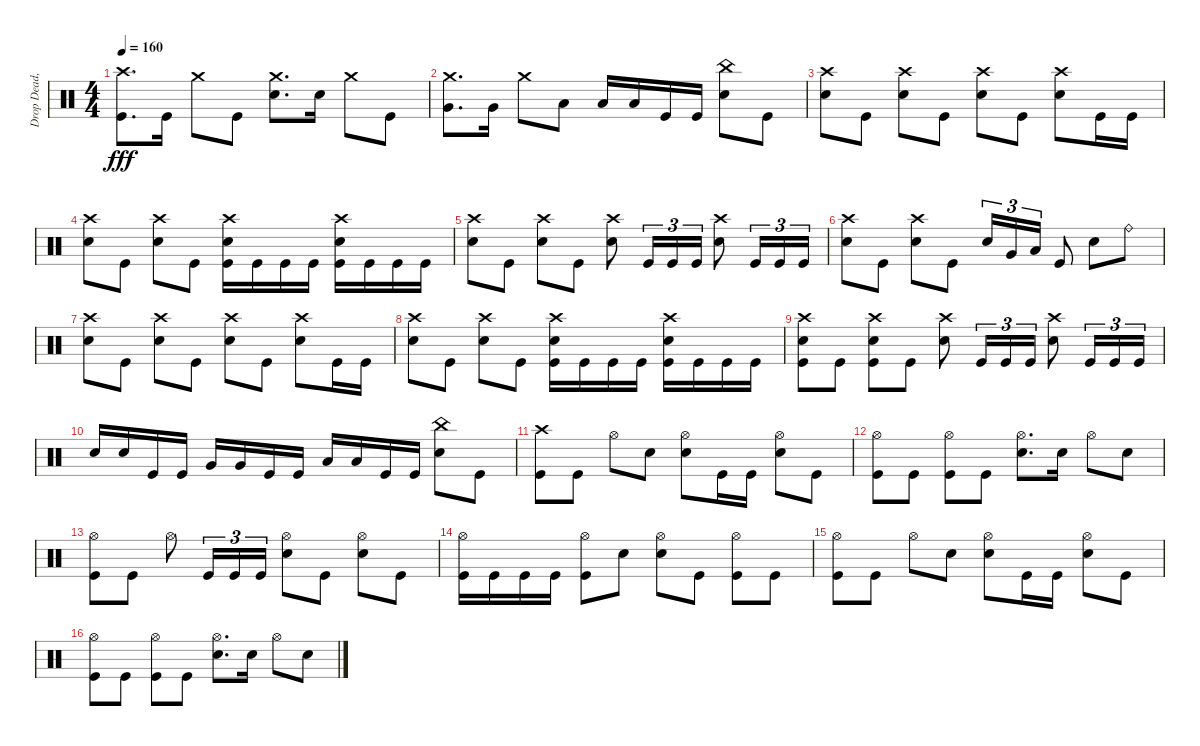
\track ("Drop Dead, Johnny" "Drop Dead,") {instrument percussion}
\staff {score}
\articulation defaults
\ts (4 4)
\tempo 160
\clef neutral
\ks c
("Crash high (hit)" "Kick (hit)").8{d dy fff} "Kick (hit)".16 "Crash medium (hit)".8 "Kick (hit)".8 ("Crash medium (hit)" "Electric Snare (hit)").8{d} "Electric Snare (hit)".16 "Crash medium (hit)".8 "Kick (hit)".8 |
("Crash medium (hit)" "Very Low Tom (hit)").8{d} "Very Low Tom (hit)".16 "Crash medium (hit)".8 "Low Floor Tom (hit)".8 "Low Floor Tom (hit)".16 "Low Floor Tom (hit)".16 "Kick (hit)".16 "Kick (hit)".16 ("China (hit)" "Electric Snare (hit)").8 "Kick (hit)".8 |
("Crash high (hit)" "Electric Snare (hit)").8 "Kick (hit)".8 ("Crash high (hit)" "Electric Snare (hit)").8 "Kick (hit)".8 ("Crash high (hit)" "Electric Snare (hit)").8 "Kick (hit)".8 ("Crash high (hit)" "Electric Snare (hit)").8 "Kick (hit)".16 "Kick (hit)".16 |
("Crash high (hit)" "Electric Snare (hit)").8 "Kick (hit)".8 ("Crash high (hit)" "Electric Snare (hit)").8 "Kick (hit)".8 ("Crash high (hit)" "Electric Snare (hit)" "Kick (hit)").16 "Kick (hit)".16 "Kick (hit)".16 "Kick (hit)".16 ("Crash high (hit)" "Electric Snare (hit)" "Kick (hit)").16 "Kick (hit)".16 "Kick (hit)".16 "Kick (hit)".16 |
("Crash high (hit)" "Electric Snare (hit)").8 "Kick (hit)".8 ("Crash high (hit)" "Electric Snare (hit)").8 "Kick (hit)".8 ("Crash high (hit)" "Electric Snare (hit)").8 "Kick (hit)".16{tu (3 2)} "Kick (hit)".16{tu (3 2)} "Kick (hit)".16{tu (3 2)} ("Crash high (hit)" "Electric Snare (hit)").8 "Kick (hit)".16{tu (3 2)} "Kick (hit)".16{tu (3 2)} "Kick (hit)".16{tu (3 2)} |
("Crash high (hit)" "Electric Snare (hit)").8 "Kick (hit)".8 ("Crash high (hit)" "Electric Snare (hit)").8 "Kick (hit)".8 "Electric Snare (hit)".16{tu (3 2)} "Very Low Tom (hit)".16{tu (3 2)} "Low Floor Tom (hit)".16{tu (3 2)} "Kick (hit)".8 "Electric Snare (hit)".8 "Ride (bell)".8 |
("Crash high (hit)" "Electric Snare (hit)").8 "Kick (hit)".8 ("Crash high (hit)" "Electric Snare (hit)").8 "Kick (hit)".8 ("Crash high (hit)" "Electric Snare (hit)").8 "Kick (hit)".8 ("Crash high (hit)" "Electric Snare (hit)").8 "Kick (hit)".16 "Kick (hit)".16 |
("Crash high (hit)" "Electric Snare (hit)").8 "Kick (hit)".8 ("Crash high (hit)" "Electric Snare (hit)").8 "Kick (hit)".8 ("Crash high (hit)" "Electric Snare (hit)" "Kick (hit)").16 "Kick (hit)".16 "Kick (hit)".16 "Kick (hit)".16 ("Crash high (hit)" "Electric Snare (hit)" "Kick (hit)").16 "Kick (hit)".16 "Kick (hit)".16 "Kick (hit)".16 |
("Crash high (hit)" "Electric Snare (hit)" "Kick (hit)").8 "Kick (hit)".8 ("Crash high (hit)" "Electric Snare (hit)" "Kick (hit)").8 "Kick (hit)".8 ("Crash high (hit)" "Electric Snare (hit)").8 "Kick (hit)".16{tu (3 2)} "Kick (hit)".16{tu (3 2)} "Kick (hit)".16{tu (3 2)} ("Crash high (hit)" "Electric Snare (hit)").8 "Kick (hit)".16{tu (3 2)} "Kick (hit)".16{tu (3 2)} "Kick (hit)".16{tu (3 2)} |
"Electric Snare (hit)".16 "Electric Snare (hit)".16 "Kick (hit)".16 "Kick (hit)".16 "Very Low Tom (hit)".16 "Very Low Tom (hit)".16 "Kick (hit)".16 "Kick (hit)".16 "Low Floor Tom (hit)".16 "Low Floor Tom (hit)".16 "Kick (hit)".16 "Kick (hit)".16 ("China (hit)" "Electric Snare (hit)").8 "Kick (hit)".8 |
("Crash high (hit)" "Kick (hit)").8 "Kick (hit)".8 "Hi-Hat (open)".8 "Electric Snare (hit)".8 ("Hi-Hat (open)" "Electric Snare (hit)").8 "Kick (hit)".16 "Kick (hit)".16 ("Hi-Hat (open)" "Electric Snare (hit)").8 "Kick (hit)".8 |
("Hi-Hat (open)" "Kick (hit)").8 "Kick (hit)".8 ("Hi-Hat (open)" "Kick (hit)").8 "Kick (hit)".8 ("Hi-Hat (open)" "Electric Snare (hit)").8{d} "Electric Snare (hit)".16 "Hi-Hat (open)".8 "Electric Snare (hit)".8 |
("Hi-Hat (open)" "Kick (hit)").8 "Kick (hit)".8 "Hi-Hat (open)".8 "Kick (hit)".16{tu (3 2)} "Kick (hit)".16{tu (3 2)} "Kick (hit)".16{tu (3 2)} ("Hi-Hat (open)" "Electric Snare (hit)").8 "Kick (hit)".8 ("Hi-Hat (open)" "Electric Snare (hit)").8 "Kick (hit)".8 |
("Hi-Hat (open)" "Kick (hit)").16 "Kick (hit)".16 "Kick (hit)".16 "Kick (hit)".16 ("Hi-Hat (open)" "Kick (hit)").8 "Electric Snare (hit)".8 ("Hi-Hat (open)" "Electric Snare (hit)").8 "Kick (hit)".8 ("Hi-Hat (open)" "Kick (hit)").8 "Kick (hit)".8 |
("Hi-Hat (open)" "Kick (hit)").8 "Kick (hit)".8 "Hi-Hat (open)".8 "Electric Snare (hit)".8 ("Hi-Hat (open)" "Electric Snare (hit)").8 "Kick (hit)".16 "Kick (hit)".16 ("Hi-Hat (open)" "Electric Snare (hit)").8 "Kick (hit)".8 |
("Hi-Hat (open)" "Kick (hit)").8 "Kick (hit)".8 ("Hi-Hat (open)" "Kick (hit)").8 "Kick (hit)".8 ("Hi-Hat (open)" "Electric Snare (hit)").8{d} "Electric Snare (hit)".16 "Hi-Hat (open)".8 "Electric Snare (hit)".8
